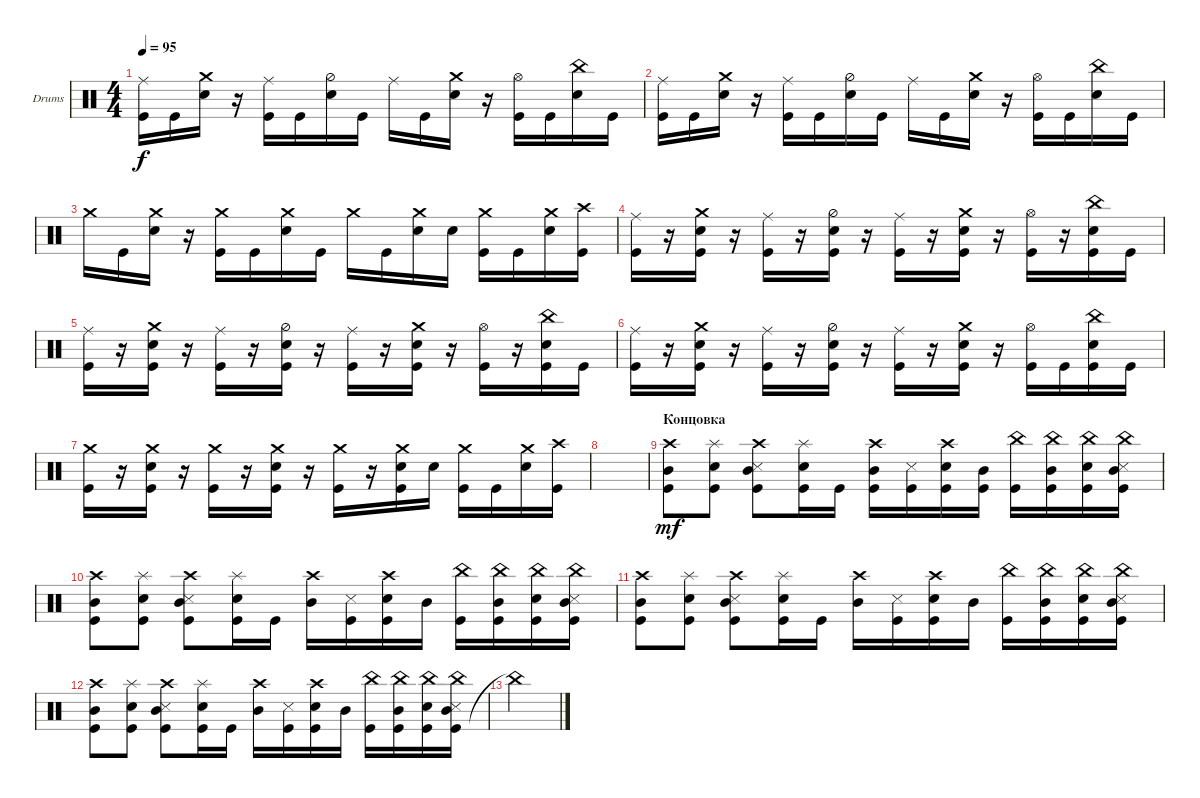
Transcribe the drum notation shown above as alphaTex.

\defaultSystemsLayout 4
\bracketExtendMode groupsimilarinstruments
\firstSystemTrackNameOrientation horizontal
\otherSystemsTrackNameOrientation horizontal
\track ("Drumkit" "Drums") {instrument percussion}
\staff {score}
\articulation defaults
\ts (4 4)
\tempo 95
\clef neutral
\scale
0.301075
\ks c
("Kick (hit)" "Ride (middle)").16{dy f} "Kick (hit)".16 ("Crash medium (hit)" "Snare (hit) 2").16 r.16 ("Kick (hit)" "Ride (middle)").16 "Kick (hit)".16 ("Snare (hit) 2" "Hi-Hat (half)").16 "Kick (hit)".16 "Ride (middle)".16 "Kick (hit)".16 ("Crash medium (hit)" "Snare (hit) 2").16 r.16 ("Kick (hit)" "Hi-Hat (open)").16 "Kick (hit)".16 ("Snare (hit) 2" "China (hit)").16 "Kick (hit)".16 |
\scale
0.333333 ("Kick (hit)" "Ride (middle)").16 "Kick (hit)".16 ("Crash medium (hit)" "Snare (hit) 2").16 r.16 ("Kick (hit)" "Ride (middle)").16 "Kick (hit)".16 ("Snare (hit) 2" "Hi-Hat (half)").16 "Kick (hit)".16 "Ride (middle)".16 "Kick (hit)".16 ("Crash medium (hit)" "Snare (hit) 2").16 r.16 ("Kick (hit)" "Hi-Hat (open)").16 "Kick (hit)".16 ("Snare (hit) 2" "China (hit)").16 "Kick (hit)".16 |
\scale
0.333333 "Crash medium (hit)".16 "Kick (hit)".16 ("Crash medium (hit)" "Snare (hit) 2").16 r.16 ("Crash medium (hit)" "Kick (hit)").16 "Kick (hit)".16 ("Crash medium (hit)" "Snare (hit) 2").16 "Kick (hit)".16 "Crash medium (hit)".16 "Kick (hit)".16 ("Crash medium (hit)" "Snare (hit) 2").16 "Snare (hit) 2".16 ("Crash medium (hit)" "Kick (hit)").16 "Kick (hit)".16 ("Crash medium (hit)" "Snare (hit) 2").16 ("Crash high (hit)" "Kick (hit)").16 |
\scale
0.333333 ("Kick (hit)" "Ride (middle)").16 r.16 ("Crash medium (hit)" "Snare (hit) 2" "Kick (hit)").16 r.16 ("Kick (hit)" "Ride (middle)").16 r.16 ("Snare (hit) 2" "Hi-Hat (half)" "Kick (hit)").16 r.16 ("Ride (middle)" "Kick (hit)").16 r.16 ("Crash medium (hit)" "Snare (hit) 2" "Kick (hit)").16 r.16 ("Kick (hit)" "Hi-Hat (open)").16 r.16 ("Snare (hit) 2" "China (hit)" "Kick (hit)").16 "Kick (hit)".16 |
\scale
0.333333 ("Kick (hit)" "Ride (middle)").16 r.16 ("Crash medium (hit)" "Snare (hit) 2" "Kick (hit)").16 r.16 ("Kick (hit)" "Ride (middle)").16 r.16 ("Snare (hit) 2" "Hi-Hat (half)" "Kick (hit)").16 r.16 ("Ride (middle)" "Kick (hit)").16 r.16 ("Crash medium (hit)" "Snare (hit) 2" "Kick (hit)").16 r.16 ("Kick (hit)" "Hi-Hat (open)").16 r.16 ("Snare (hit) 2" "China (hit)" "Kick (hit)").16 "Kick (hit)".16 |
\scale
0.333333 ("Ride (middle)" "Kick (hit)").16 r.16 ("Crash medium (hit)" "Snare (hit) 2" "Kick (hit)").16 r.16 ("Kick (hit)" "Ride (middle)").16 r.16 ("Snare (hit) 2" "Hi-Hat (half)" "Kick (hit)").16 r.16 ("Ride (middle)" "Kick (hit)").16 r.16 ("Crash medium (hit)" "Snare (hit) 2" "Kick (hit)").16 r.16 ("Kick (hit)" "Hi-Hat (open)").16 "Kick (hit)".16 ("Snare (hit) 2" "China (hit)" "Kick (hit)").16 "Kick (hit)".16 |
\scale
0.333333 ("Crash medium (hit)" "Kick (hit)").16 r.16 ("Crash medium (hit)" "Snare (hit) 2" "Kick (hit)").16 r.16 ("Crash medium (hit)" "Kick (hit)").16 r.16 ("Crash medium (hit)" "Snare (hit) 2" "Kick (hit)").16 r.16 ("Crash medium (hit)" "Kick (hit)").16 r.16 ("Crash medium (hit)" "Snare (hit) 2" "Kick (hit)").16 "Snare (hit) 2".16 ("Crash medium (hit)" "Kick (hit)").16 "Kick (hit)".16 ("Crash medium (hit)" "Snare (hit) 2").16 ("Crash high (hit)" "Kick (hit)").16 |
\scale
0.333333 |
\section ("" "Концовка")
\scale
0.333333 ("Kick (hit)" "Mid Tom (hit)" "Crash high (hit)").8{dy mf} ("Kick (hit)" "Snare (hit) 2" "Splash (hit)").8 ("Kick (hit)" "Snare (side stick) 3" "Mid Tom (hit)" "Crash high (hit)").8 ("Kick (hit)" "Snare (hit) 2" "Splash (hit)").16 "Kick (hit)".16 ("Mid Tom (hit)" "Crash high (hit)" "Kick (hit)").16 ("Kick (hit)" "Snare (side stick) 3").16 ("Kick (hit)" "Snare (hit) 2" "Crash high (hit)").16 ("Mid Tom (hit)" "Kick (hit)").16 ("Kick (hit)" "China (hit)").16 ("Kick (hit)" "Mid Tom (hit)" "China (hit)").16 ("Kick (hit)" "Snare (hit) 2" "China (hit)").16 ("Kick (hit)" "Snare (side stick) 3" "Mid Tom (hit)" "China (hit)").16 |
\scale
0.333333 ("Kick (hit)" "Mid Tom (hit)" "Crash high (hit)").8 ("Kick (hit)" "Snare (hit) 2" "Splash (hit)").8 ("Kick (hit)" "Snare (side stick) 3" "Mid Tom (hit)" "Crash high (hit)").8 ("Kick (hit)" "Snare (hit) 2" "Splash (hit)").16 "Kick (hit)".16 ("Mid Tom (hit)" "Crash high (hit)").16 ("Kick (hit)" "Snare (side stick) 3").16 ("Kick (hit)" "Snare (hit) 2" "Crash high (hit)").16 "Mid Tom (hit)".16 ("Kick (hit)" "China (hit)").16 ("Kick (hit)" "Mid Tom (hit)" "China (hit)").16 ("Kick (hit)" "Snare (hit) 2" "China (hit)").16 ("Kick (hit)" "Snare (side stick) 3" "Mid Tom (hit)" "China (hit)").16 |
("Kick (hit)" "Mid Tom (hit)" "Crash high (hit)").8 ("Kick (hit)" "Snare (hit) 2" "Splash (hit)").8 ("Kick (hit)" "Snare (side stick) 3" "Mid Tom (hit)" "Crash high (hit)").8 ("Kick (hit)" "Snare (hit) 2" "Splash (hit)").16 "Kick (hit)".16 ("Mid Tom (hit)" "Crash high (hit)").16 ("Kick (hit)" "Snare (side stick) 3").16 ("Kick (hit)" "Snare (hit) 2" "Crash high (hit)").16 "Mid Tom (hit)".16 ("Kick (hit)" "China (hit)").16 ("Kick (hit)" "Mid Tom (hit)" "China (hit)").16 ("Kick (hit)" "Snare (hit) 2" "China (hit)").16 ("Kick (hit)" "Snare (side stick) 3" "Mid Tom (hit)" "China (hit)").16 |
("Kick (hit)" "Mid Tom (hit)" "Crash high (hit)").8 ("Kick (hit)" "Snare (hit) 2" "Splash (hit)").8 ("Kick (hit)" "Snare (side stick) 3" "Mid Tom (hit)" "Crash high (hit)").8 ("Kick (hit)" "Snare (hit) 2" "Splash (hit)").16 "Kick (hit)".16 ("Mid Tom (hit)" "Crash high (hit)").16 ("Kick (hit)" "Snare (side stick) 3").16 ("Kick (hit)" "Snare (hit) 2" "Crash high (hit)").16 "Mid Tom (hit)".16 ("Kick (hit)" "China (hit)").16 ("Kick (hit)" "Mid Tom (hit)" "China (hit)").16 ("Kick (hit)" "Snare (hit) 2" "China (hit)").16 ("Kick (hit)" "Snare (side stick) 3" "Mid Tom (hit)" "China (hit)").16 |
"China (hit)"{t}.2
